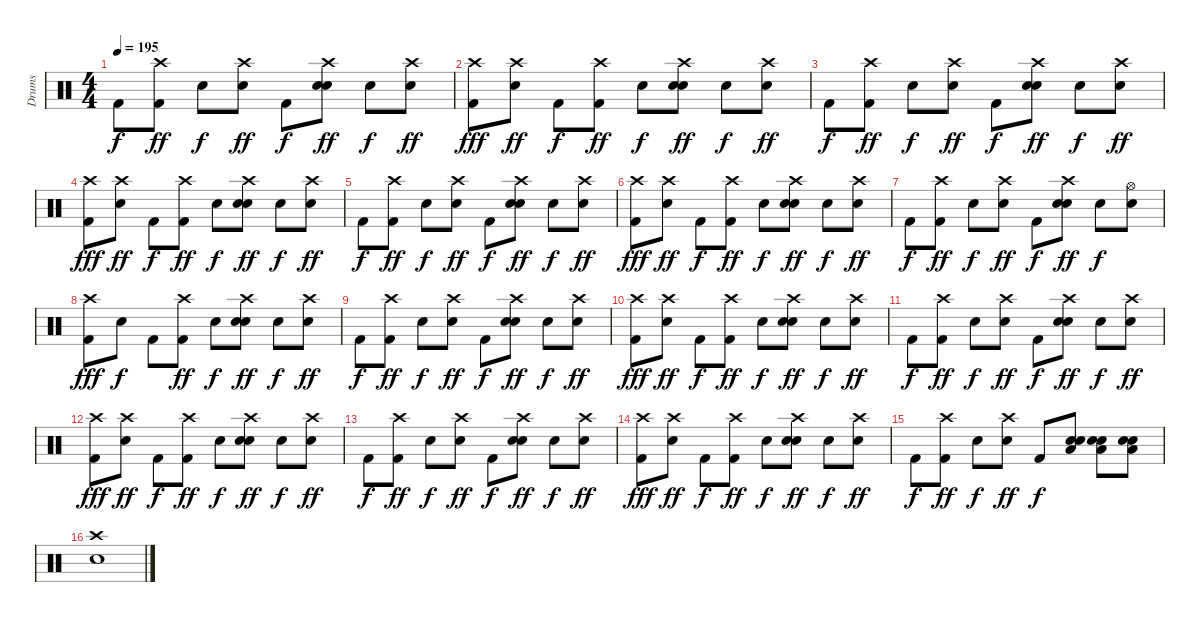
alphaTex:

\track ("Drums" "Drums") {instrument percussion}
\staff {score}
\articulation defaults
\ts (4 4)
\tempo 195
\clef neutral
\ks c "Kick (hit) 2".8{dy f}
("Crash high (hit)" "Kick (hit) 2").8{dy ff} "Snare (hit)".8{dy f} ("Crash high (hit)" "Snare (hit)").8{dy ff} "Kick (hit) 2".8{dy f} ("Crash high (hit)" "Snare (hit) 2" "Snare (hit)").8{dy ff} "Snare (hit)".8{dy f} ("Crash high (hit)" "Snare (hit)").8{dy ff} |
("Crash high (hit)" "Kick (hit) 2").8{dy fff} ("Crash high (hit)" "Snare (hit)").8{dy ff} "Kick (hit) 2".8{dy f} ("Crash high (hit)" "Kick (hit) 2").8{dy ff} "Snare (hit)".8{dy f} ("Crash high (hit)" "Snare (hit) 2" "Snare (hit)").8{dy ff} "Snare (hit)".8{dy f} ("Crash high (hit)" "Snare (hit)").8{dy ff} |
"Kick (hit) 2".8{dy f} ("Crash high (hit)" "Kick (hit) 2").8{dy ff} "Snare (hit)".8{dy f} ("Crash high (hit)" "Snare (hit)").8{dy ff} "Kick (hit) 2".8{dy f} ("Crash high (hit)" "Snare (hit) 2" "Snare (hit)").8{dy ff} "Snare (hit)".8{dy f} ("Crash high (hit)" "Snare (hit)").8{dy ff} |
("Crash high (hit)" "Kick (hit) 2").8{dy fff} ("Crash high (hit)" "Snare (hit)").8{dy ff} "Kick (hit) 2".8{dy f} ("Crash high (hit)" "Kick (hit) 2").8{dy ff} "Snare (hit)".8{dy f} ("Crash high (hit)" "Snare (hit) 2" "Snare (hit)").8{dy ff} "Snare (hit)".8{dy f} ("Crash high (hit)" "Snare (hit)").8{dy ff} |
"Kick (hit) 2".8{dy f} ("Crash high (hit)" "Kick (hit) 2").8{dy ff} "Snare (hit)".8{dy f} ("Crash high (hit)" "Snare (hit)").8{dy ff} "Kick (hit) 2".8{dy f} ("Crash high (hit)" "Snare (hit) 2" "Snare (hit)").8{dy ff} "Snare (hit)".8{dy f} ("Crash high (hit)" "Snare (hit)").8{dy ff} |
("Crash high (hit)" "Kick (hit) 2").8{dy fff} ("Crash high (hit)" "Snare (hit)").8{dy ff} "Kick (hit) 2".8{dy f} ("Crash high (hit)" "Kick (hit) 2").8{dy ff} "Snare (hit)".8{dy f} ("Crash high (hit)" "Snare (hit) 2" "Snare (hit)").8{dy ff} "Snare (hit)".8{dy f} ("Crash high (hit)" "Snare (hit)").8{dy ff} |
"Kick (hit) 2".8{dy f} ("Crash high (hit)" "Kick (hit) 2").8{dy ff} "Snare (hit)".8{dy f} ("Crash high (hit)" "Snare (hit)").8{dy ff} "Kick (hit) 2".8{dy f} ("Crash high (hit)" "Snare (hit) 2" "Snare (hit)").8{dy ff} "Snare (hit)".8{dy f} ("Hi-Hat (open)" "Snare (hit)").8 |
("Crash high (hit)" "Kick (hit) 2").8{dy fff} "Snare (hit)".8{dy f} "Kick (hit) 2".8 ("Crash high (hit)" "Kick (hit) 2").8{dy ff} "Snare (hit)".8{dy f} ("Crash high (hit)" "Snare (hit) 2" "Snare (hit)").8{dy ff} "Snare (hit)".8{dy f} ("Crash high (hit)" "Snare (hit)").8{dy ff} |
"Kick (hit) 2".8{dy f} ("Crash high (hit)" "Kick (hit) 2").8{dy ff} "Snare (hit)".8{dy f} ("Crash high (hit)" "Snare (hit)").8{dy ff} "Kick (hit) 2".8{dy f} ("Crash high (hit)" "Snare (hit) 2" "Snare (hit)").8{dy ff} "Snare (hit)".8{dy f} ("Crash high (hit)" "Snare (hit)").8{dy ff} |
("Crash high (hit)" "Kick (hit) 2").8{dy fff} ("Crash high (hit)" "Snare (hit)").8{dy ff} "Kick (hit) 2".8{dy f} ("Crash high (hit)" "Kick (hit) 2").8{dy ff} "Snare (hit)".8{dy f} ("Crash high (hit)" "Snare (hit) 2" "Snare (hit)").8{dy ff} "Snare (hit)".8{dy f} ("Crash high (hit)" "Snare (hit)").8{dy ff} |
"Kick (hit) 2".8{dy f} ("Crash high (hit)" "Kick (hit) 2").8{dy ff} "Snare (hit)".8{dy f} ("Crash high (hit)" "Snare (hit)").8{dy ff} "Kick (hit) 2".8{dy f} ("Crash high (hit)" "Snare (hit) 2" "Snare (hit)").8{dy ff} "Snare (hit)".8{dy f} ("Crash high (hit)" "Snare (hit)").8{dy ff} |
("Crash high (hit)" "Kick (hit) 2").8{dy fff} ("Crash high (hit)" "Snare (hit)").8{dy ff} "Kick (hit) 2".8{dy f} ("Crash high (hit)" "Kick (hit) 2").8{dy ff} "Snare (hit)".8{dy f} ("Crash high (hit)" "Snare (hit) 2" "Snare (hit)").8{dy ff} "Snare (hit)".8{dy f} ("Crash high (hit)" "Snare (hit)").8{dy ff} |
"Kick (hit) 2".8{dy f} ("Crash high (hit)" "Kick (hit) 2").8{dy ff} "Snare (hit)".8{dy f} ("Crash high (hit)" "Snare (hit)").8{dy ff} "Kick (hit) 2".8{dy f} ("Crash high (hit)" "Snare (hit) 2" "Snare (hit)").8{dy ff} "Snare (hit)".8{dy f} ("Crash high (hit)" "Snare (hit)").8{dy ff} |
("Crash high (hit)" "Kick (hit) 2").8{dy fff} ("Crash high (hit)" "Snare (hit)").8{dy ff} "Kick (hit) 2".8{dy f} ("Crash high (hit)" "Kick (hit) 2").8{dy ff} "Snare (hit)".8{dy f} ("Crash high (hit)" "Snare (hit) 2" "Snare (hit)").8{dy ff} "Snare (hit)".8{dy f} ("Crash high (hit)" "Snare (hit)").8{dy ff} |
"Kick (hit) 2".8{dy f} ("Crash high (hit)" "Kick (hit) 2").8{dy ff} "Snare (hit)".8{dy f} ("Crash high (hit)" "Snare (hit)").8{dy ff} "Kick (hit) 2".8{dy f} ("Low Floor Tom (hit)" "Snare (hit) 2" "Snare (hit)").8 ("Low Floor Tom (hit)" "Snare (hit) 2" "Snare (hit)").8 ("Low Floor Tom (hit)" "Snare (hit) 2" "Snare (hit)").8 |
("Crash high (hit)" "Snare (hit) 2").1
